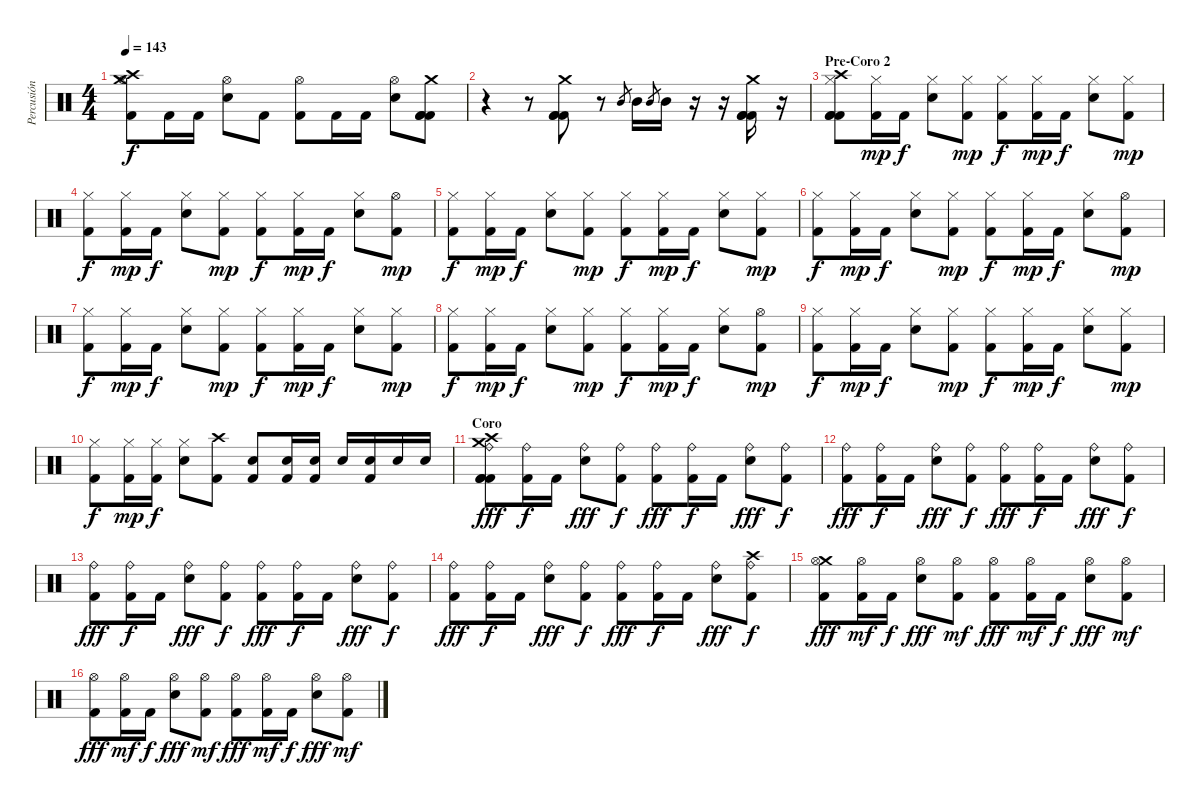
\track ("Percusión" "Percusión") {instrument percussion}
\staff {score}
\articulation defaults
\ts (4 4)
\tempo 143
\clef neutral
\ks c
("Crash high (hit)" "Crash medium (hit)" "Hi-Hat (open)" "Kick (hit) 2").8{dy f} "Kick (hit) 2".16 "Kick (hit) 2".16 ("Hi-Hat (open)" "Electric Snare (hit)").8 "Kick (hit) 2".8 ("Hi-Hat (open)" "Kick (hit) 2").8 "Kick (hit) 2".16 "Kick (hit) 2".16 ("Hi-Hat (open)" "Electric Snare (hit)").8 ("Crash medium (hit)" "Kick (hit) 2" "Kick (hit) 2" "Kick (hit) 2").8 |
r.4 r.8 ("Crash medium (hit)" "Kick (hit) 2" "Kick (hit) 2" "Kick (hit) 2").8 r.8 "Mid Tom (hit)".8{gr} "Mid Tom (hit)".16 "Mid Tom (hit)".8{gr} "Mid Tom (hit)".16 r.16 r.16 ("Crash medium (hit)" "Kick (hit) 2" "Kick (hit) 2" "Kick (hit) 2").16 r.16 |
\section ("" "Pre-Coro 2")
("Crash high (hit)" "Hi-Hat (closed)" "Kick (hit) 2" "Kick (hit) 2" "Kick (hit) 2").8 ("Hi-Hat (closed)" "Kick (hit) 2").16{dy mp} "Kick (hit) 2".16{dy f} ("Hi-Hat (closed)" "Electric Snare (hit)").8 ("Hi-Hat (closed)" "Kick (hit) 2").8{dy mp} ("Hi-Hat (closed)" "Kick (hit) 2").8{dy f} ("Hi-Hat (closed)" "Kick (hit) 2").16{dy mp} "Kick (hit) 2".16{dy f} ("Hi-Hat (closed)" "Electric Snare (hit)").8 ("Hi-Hat (closed)" "Kick (hit) 2").8{dy mp} |
("Hi-Hat (closed)" "Kick (hit) 2").8{dy f} ("Hi-Hat (closed)" "Kick (hit) 2").16{dy mp} "Kick (hit) 2".16{dy f} ("Hi-Hat (closed)" "Electric Snare (hit)").8 ("Hi-Hat (closed)" "Kick (hit) 2").8{dy mp} ("Hi-Hat (closed)" "Kick (hit) 2").8{dy f} ("Hi-Hat (closed)" "Kick (hit) 2").16{dy mp} "Kick (hit) 2".16{dy f} ("Hi-Hat (closed)" "Electric Snare (hit)").8 ("Hi-Hat (open)" "Kick (hit) 2").8{dy mp} |
("Hi-Hat (closed)" "Kick (hit) 2").8{dy f} ("Hi-Hat (closed)" "Kick (hit) 2").16{dy mp} "Kick (hit) 2".16{dy f} ("Hi-Hat (closed)" "Electric Snare (hit)").8 ("Hi-Hat (closed)" "Kick (hit) 2").8{dy mp} ("Hi-Hat (closed)" "Kick (hit) 2").8{dy f} ("Hi-Hat (closed)" "Kick (hit) 2").16{dy mp} "Kick (hit) 2".16{dy f} ("Hi-Hat (closed)" "Electric Snare (hit)").8 ("Hi-Hat (closed)" "Kick (hit) 2").8{dy mp} |
("Hi-Hat (closed)" "Kick (hit) 2").8{dy f} ("Hi-Hat (closed)" "Kick (hit) 2").16{dy mp} "Kick (hit) 2".16{dy f} ("Hi-Hat (closed)" "Electric Snare (hit)").8 ("Hi-Hat (closed)" "Kick (hit) 2").8{dy mp} ("Hi-Hat (closed)" "Kick (hit) 2").8{dy f} ("Hi-Hat (closed)" "Kick (hit) 2").16{dy mp} "Kick (hit) 2".16{dy f} ("Hi-Hat (closed)" "Electric Snare (hit)").8 ("Hi-Hat (open)" "Kick (hit) 2").8{dy mp} |
("Hi-Hat (closed)" "Kick (hit) 2").8{dy f} ("Hi-Hat (closed)" "Kick (hit) 2").16{dy mp} "Kick (hit) 2".16{dy f} ("Hi-Hat (closed)" "Electric Snare (hit)").8 ("Hi-Hat (closed)" "Kick (hit) 2").8{dy mp} ("Hi-Hat (closed)" "Kick (hit) 2").8{dy f} ("Hi-Hat (closed)" "Kick (hit) 2").16{dy mp} "Kick (hit) 2".16{dy f} ("Hi-Hat (closed)" "Electric Snare (hit)").8 ("Hi-Hat (closed)" "Kick (hit) 2").8{dy mp} |
("Hi-Hat (closed)" "Kick (hit) 2").8{dy f} ("Hi-Hat (closed)" "Kick (hit) 2").16{dy mp} "Kick (hit) 2".16{dy f} ("Hi-Hat (closed)" "Electric Snare (hit)").8 ("Hi-Hat (closed)" "Kick (hit) 2").8{dy mp} ("Hi-Hat (closed)" "Kick (hit) 2").8{dy f} ("Hi-Hat (closed)" "Kick (hit) 2").16{dy mp} "Kick (hit) 2".16{dy f} ("Hi-Hat (closed)" "Electric Snare (hit)").8 ("Hi-Hat (open)" "Kick (hit) 2").8{dy mp} |
("Hi-Hat (closed)" "Kick (hit) 2").8{dy f} ("Hi-Hat (closed)" "Kick (hit) 2").16{dy mp} "Kick (hit) 2".16{dy f} ("Hi-Hat (closed)" "Electric Snare (hit)").8 ("Hi-Hat (closed)" "Kick (hit) 2").8{dy mp} ("Hi-Hat (closed)" "Kick (hit) 2").8{dy f} ("Hi-Hat (closed)" "Kick (hit) 2").16{dy mp} "Kick (hit) 2".16{dy f} ("Hi-Hat (closed)" "Electric Snare (hit)").8 ("Hi-Hat (closed)" "Kick (hit) 2").8{dy mp} |
("Hi-Hat (closed)" "Kick (hit) 2").8{dy f} ("Hi-Hat (closed)" "Kick (hit) 2").16{dy mp} ("Hi-Hat (closed)" "Kick (hit) 2").16{dy f} ("Hi-Hat (closed)" "Electric Snare (hit)").8 ("Crash high (hit)" "Kick (hit) 2").8 ("Electric Snare (hit)" "Kick (hit) 2").8 ("Electric Snare (hit)" "Kick (hit) 2").16 ("Electric Snare (hit)" "Kick (hit) 2").16 "Electric Snare (hit)".16 ("Electric Snare (hit)" "Kick (hit) 2").16 "Electric Snare (hit)".16 "Electric Snare (hit)".16 |
\section ("" "Coro")
("Crash high (hit)" "Crash medium (hit)" "Ride (bell)" "Kick (hit) 2" "Kick (hit) 2" "Kick (hit) 2").8{dy fff} ("Ride (bell)" "Kick (hit) 2").16{dy f} "Kick (hit) 2".16 ("Ride (bell)" "Electric Snare (hit)").8{dy fff} ("Ride (bell)" "Kick (hit) 2").8{dy f} ("Ride (bell)" "Kick (hit) 2").8{dy fff} ("Ride (bell)" "Kick (hit) 2").16{dy f} "Kick (hit) 2".16 ("Ride (bell)" "Electric Snare (hit)").8{dy fff} ("Ride (bell)" "Kick (hit) 2").8{dy f} |
("Ride (bell)" "Kick (hit) 2").8{dy fff} ("Ride (bell)" "Kick (hit) 2").16{dy f} "Kick (hit) 2".16 ("Ride (bell)" "Electric Snare (hit)").8{dy fff} ("Ride (bell)" "Kick (hit) 2").8{dy f} ("Ride (bell)" "Kick (hit) 2").8{dy fff} ("Ride (bell)" "Kick (hit) 2").16{dy f} "Kick (hit) 2".16 ("Ride (bell)" "Electric Snare (hit)").8{dy fff} ("Ride (bell)" "Kick (hit) 2").8{dy f} |
("Ride (bell)" "Kick (hit) 2").8{dy fff} ("Ride (bell)" "Kick (hit) 2").16{dy f} "Kick (hit) 2".16 ("Ride (bell)" "Electric Snare (hit)").8{dy fff} ("Ride (bell)" "Kick (hit) 2").8{dy f} ("Ride (bell)" "Kick (hit) 2").8{dy fff} ("Ride (bell)" "Kick (hit) 2").16{dy f} "Kick (hit) 2".16 ("Ride (bell)" "Electric Snare (hit)").8{dy fff} ("Ride (bell)" "Kick (hit) 2").8{dy f} |
("Ride (bell)" "Kick (hit) 2").8{dy fff} ("Ride (bell)" "Kick (hit) 2").16{dy f} "Kick (hit) 2".16 ("Ride (bell)" "Electric Snare (hit)").8{dy fff} ("Ride (bell)" "Kick (hit) 2").8{dy f} ("Ride (bell)" "Kick (hit) 2").8{dy fff} ("Ride (bell)" "Kick (hit) 2").16{dy f} "Kick (hit) 2".16 ("Ride (bell)" "Electric Snare (hit)").8{dy fff} ("Crash high (hit)" "Ride (bell)" "Kick (hit) 2").8{dy f} |
("Crash medium (hit)" "Hi-Hat (open)" "Kick (hit) 2").8{dy fff} ("Hi-Hat (open)" "Kick (hit) 2").16{dy mf} "Kick (hit) 2".16{dy f} ("Hi-Hat (open)" "Electric Snare (hit)").8{dy fff} ("Hi-Hat (open)" "Kick (hit) 2").8{dy mf} ("Hi-Hat (open)" "Kick (hit) 2").8{dy fff} ("Hi-Hat (open)" "Kick (hit) 2").16{dy mf} "Kick (hit) 2".16{dy f} ("Hi-Hat (open)" "Electric Snare (hit)").8{dy fff} ("Hi-Hat (open)" "Kick (hit) 2").8{dy mf} |
("Hi-Hat (open)" "Kick (hit) 2").8{dy fff} ("Hi-Hat (open)" "Kick (hit) 2").16{dy mf} "Kick (hit) 2".16{dy f} ("Hi-Hat (open)" "Electric Snare (hit)").8{dy fff} ("Hi-Hat (open)" "Kick (hit) 2").8{dy mf} ("Hi-Hat (open)" "Kick (hit) 2").8{dy fff} ("Hi-Hat (open)" "Kick (hit) 2").16{dy mf} "Kick (hit) 2".16{dy f} ("Hi-Hat (open)" "Electric Snare (hit)").8{dy fff} ("Hi-Hat (open)" "Kick (hit) 2").8{dy mf}
